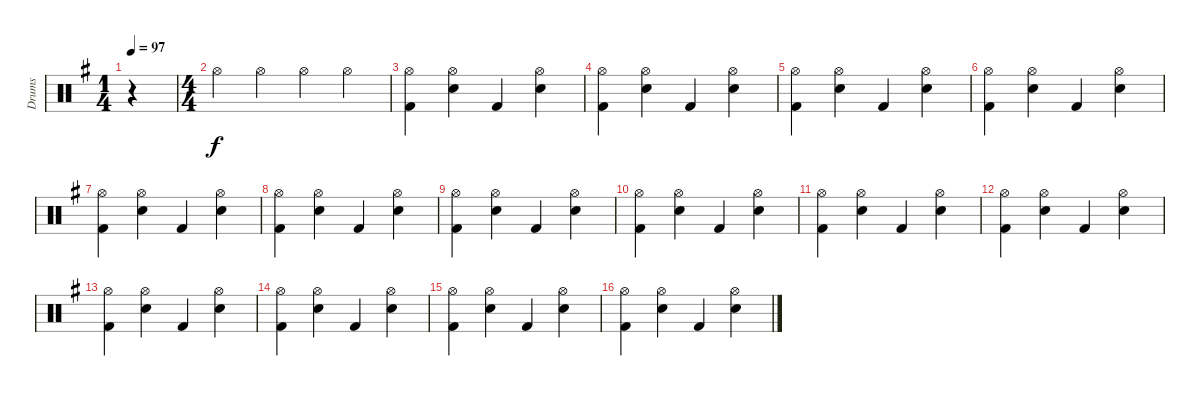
\track ("Drums" "Drums") {instrument percussion}
\staff {score}
\articulation defaults
\ts (1 4)
\tempo 97
\clef neutral
\ks g
r.4{dy f} |
\ts (4 4)
"Hi-Hat (open)".4 "Hi-Hat (open)".4 "Hi-Hat (open)".4 "Hi-Hat (open)".4 |
("Hi-Hat (open)" "Kick (hit) 2").4 ("Hi-Hat (open)" "Snare (hit) 2").4 "Kick (hit) 2".4 ("Hi-Hat (open)" "Snare (hit) 2").4 |
("Hi-Hat (open)" "Kick (hit) 2").4 ("Hi-Hat (open)" "Snare (hit) 2").4 "Kick (hit) 2".4 ("Hi-Hat (open)" "Snare (hit) 2").4 |
("Hi-Hat (open)" "Kick (hit) 2").4 ("Hi-Hat (open)" "Snare (hit) 2").4 "Kick (hit) 2".4 ("Hi-Hat (open)" "Snare (hit) 2").4 |
("Hi-Hat (open)" "Kick (hit) 2").4 ("Hi-Hat (open)" "Snare (hit) 2").4 "Kick (hit) 2".4 ("Hi-Hat (open)" "Snare (hit) 2").4 |
("Hi-Hat (open)" "Kick (hit) 2").4 ("Hi-Hat (open)" "Snare (hit) 2").4 "Kick (hit) 2".4 ("Hi-Hat (open)" "Snare (hit) 2").4 |
("Hi-Hat (open)" "Kick (hit) 2").4 ("Hi-Hat (open)" "Snare (hit) 2").4 "Kick (hit) 2".4 ("Hi-Hat (open)" "Snare (hit) 2").4 |
("Hi-Hat (open)" "Kick (hit) 2").4 ("Hi-Hat (open)" "Snare (hit) 2").4 "Kick (hit) 2".4 ("Hi-Hat (open)" "Snare (hit) 2").4 |
("Hi-Hat (open)" "Kick (hit) 2").4 ("Hi-Hat (open)" "Snare (hit) 2").4 "Kick (hit) 2".4 ("Hi-Hat (open)" "Snare (hit) 2").4 |
("Hi-Hat (open)" "Kick (hit) 2").4 ("Hi-Hat (open)" "Snare (hit) 2").4 "Kick (hit) 2".4 ("Hi-Hat (open)" "Snare (hit) 2").4 |
("Hi-Hat (open)" "Kick (hit) 2").4 ("Hi-Hat (open)" "Snare (hit) 2").4 "Kick (hit) 2".4 ("Hi-Hat (open)" "Snare (hit) 2").4 |
("Hi-Hat (open)" "Kick (hit) 2").4 ("Hi-Hat (open)" "Snare (hit) 2").4 "Kick (hit) 2".4 ("Hi-Hat (open)" "Snare (hit) 2").4 |
("Hi-Hat (open)" "Kick (hit) 2").4 ("Hi-Hat (open)" "Snare (hit) 2").4 "Kick (hit) 2".4 ("Hi-Hat (open)" "Snare (hit) 2").4 |
("Hi-Hat (open)" "Kick (hit) 2").4 ("Hi-Hat (open)" "Snare (hit) 2").4 "Kick (hit) 2".4 ("Hi-Hat (open)" "Snare (hit) 2").4 |
("Hi-Hat (open)" "Kick (hit) 2").4 ("Hi-Hat (open)" "Snare (hit) 2").4 "Kick (hit) 2".4 ("Hi-Hat (open)" "Snare (hit) 2").4
